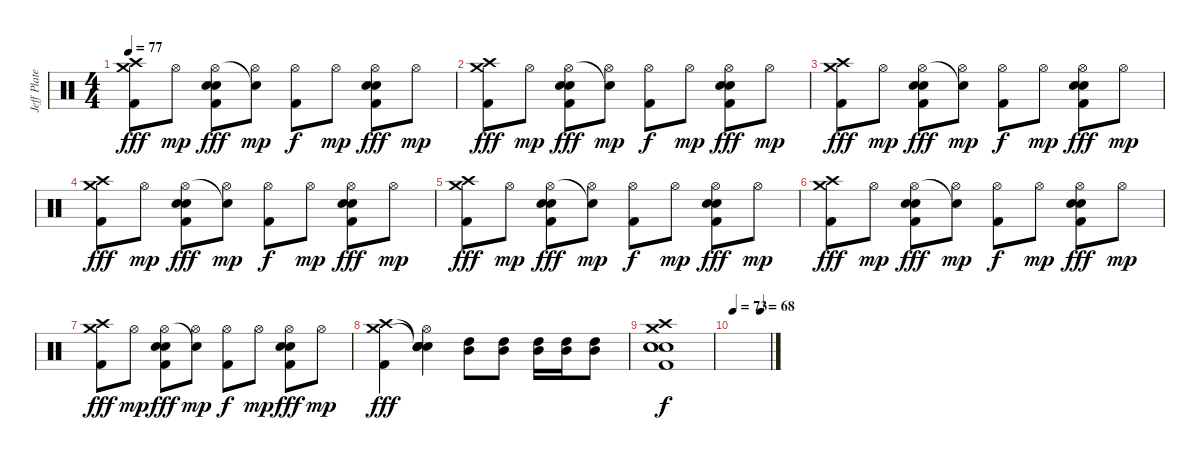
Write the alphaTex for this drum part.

\track ("Jeff Plate" "Jeff Plate") {instrument percussion}
\staff {score}
\articulation defaults
\ts (4 4)
\tempo 77
\clef neutral
\ks c
("Crash medium (hit)" "Crash high (hit)" "Kick (hit) 2").8{dy fff} "Hi-Hat (open)".8{dy mp} ("Hi-Hat (open)" "Electric Snare (hit)" "Electric Snare (hit)" "Kick (hit) 2").8{dy fff} ("Snare (hit)"{t} "Hi-Hat (open)").8{dy mp} ("Hi-Hat (open)" "Kick (hit) 2").8{dy f} "Hi-Hat (open)".8{dy mp} ("Hi-Hat (open)" "Electric Snare (hit)" "Electric Snare (hit)" "Kick (hit) 2").8{dy fff} "Hi-Hat (open)".8{dy mp} |
("Crash medium (hit)" "Crash high (hit)" "Kick (hit) 2").8{dy fff} "Hi-Hat (open)".8{dy mp} ("Hi-Hat (open)" "Electric Snare (hit)" "Electric Snare (hit)" "Kick (hit) 2").8{dy fff} ("Snare (hit)"{t} "Hi-Hat (open)").8{dy mp} ("Hi-Hat (open)" "Kick (hit) 2").8{dy f} "Hi-Hat (open)".8{dy mp} ("Hi-Hat (open)" "Electric Snare (hit)" "Electric Snare (hit)" "Kick (hit) 2").8{dy fff} "Hi-Hat (open)".8{dy mp} |
("Crash medium (hit)" "Crash high (hit)" "Kick (hit) 2").8{dy fff} "Hi-Hat (open)".8{dy mp} ("Hi-Hat (open)" "Electric Snare (hit)" "Electric Snare (hit)" "Kick (hit) 2").8{dy fff} ("Snare (hit)"{t} "Hi-Hat (open)").8{dy mp} ("Hi-Hat (open)" "Kick (hit) 2").8{dy f} "Hi-Hat (open)".8{dy mp} ("Hi-Hat (open)" "Electric Snare (hit)" "Electric Snare (hit)" "Kick (hit) 2").8{dy fff} "Hi-Hat (open)".8{dy mp} |
("Crash medium (hit)" "Crash high (hit)" "Kick (hit) 2").8{dy fff} "Hi-Hat (open)".8{dy mp} ("Hi-Hat (open)" "Electric Snare (hit)" "Electric Snare (hit)" "Kick (hit) 2").8{dy fff} ("Snare (hit)"{t} "Hi-Hat (open)").8{dy mp} ("Hi-Hat (open)" "Kick (hit) 2").8{dy f} "Hi-Hat (open)".8{dy mp} ("Hi-Hat (open)" "Electric Snare (hit)" "Electric Snare (hit)" "Kick (hit) 2").8{dy fff} "Hi-Hat (open)".8{dy mp} |
("Crash medium (hit)" "Crash high (hit)" "Kick (hit) 2").8{dy fff} "Hi-Hat (open)".8{dy mp} ("Hi-Hat (open)" "Electric Snare (hit)" "Electric Snare (hit)" "Kick (hit) 2").8{dy fff} ("Snare (hit)"{t} "Hi-Hat (open)").8{dy mp} ("Hi-Hat (open)" "Kick (hit) 2").8{dy f} "Hi-Hat (open)".8{dy mp} ("Hi-Hat (open)" "Electric Snare (hit)" "Electric Snare (hit)" "Kick (hit) 2").8{dy fff} "Hi-Hat (open)".8{dy mp} |
("Crash medium (hit)" "Crash high (hit)" "Kick (hit) 2").8{dy fff} "Hi-Hat (open)".8{dy mp} ("Hi-Hat (open)" "Electric Snare (hit)" "Electric Snare (hit)" "Kick (hit) 2").8{dy fff} ("Snare (hit)"{t} "Hi-Hat (open)").8{dy mp} ("Hi-Hat (open)" "Kick (hit) 2").8{dy f} "Hi-Hat (open)".8{dy mp} ("Hi-Hat (open)" "Electric Snare (hit)" "Electric Snare (hit)" "Kick (hit) 2").8{dy fff} "Hi-Hat (open)".8{dy mp} |
("Crash medium (hit)" "Crash high (hit)" "Kick (hit) 2").8{dy fff} "Hi-Hat (open)".8{dy mp} ("Hi-Hat (open)" "Electric Snare (hit)" "Electric Snare (hit)" "Kick (hit) 2").8{dy fff} ("Snare (hit)"{t} "Hi-Hat (open)").8{dy mp} ("Hi-Hat (open)" "Kick (hit) 2").8{dy f} "Hi-Hat (open)".8{dy mp} ("Hi-Hat (open)" "Electric Snare (hit)" "Electric Snare (hit)" "Kick (hit) 2").8{dy fff} "Hi-Hat (open)".8{dy mp} |
("Crash medium (hit)" "Crash high (hit)" "Kick (hit) 2").4{dy fff} ("Snare (hit)"{t} "Snare (hit)"{t} "Hi-Hat (open)" "Electric Snare (hit)" "Electric Snare (hit)").4 ("Mid Tom (hit)" "High Tom (hit)").8 ("Mid Tom (hit)" "High Tom (hit)").8 ("Mid Tom (hit)" "High Tom (hit)").16 ("Mid Tom (hit)" "High Tom (hit)").16 ("Mid Tom (hit)" "High Tom (hit)").8 |
("Crash high (hit)" "Crash medium (hit)" "Electric Snare (hit)" "Electric Snare (hit)" "Electric Snare (hit)" "Kick (hit) 2").1{dy f} |
\tempo 73
\tempo (68 0.75)
